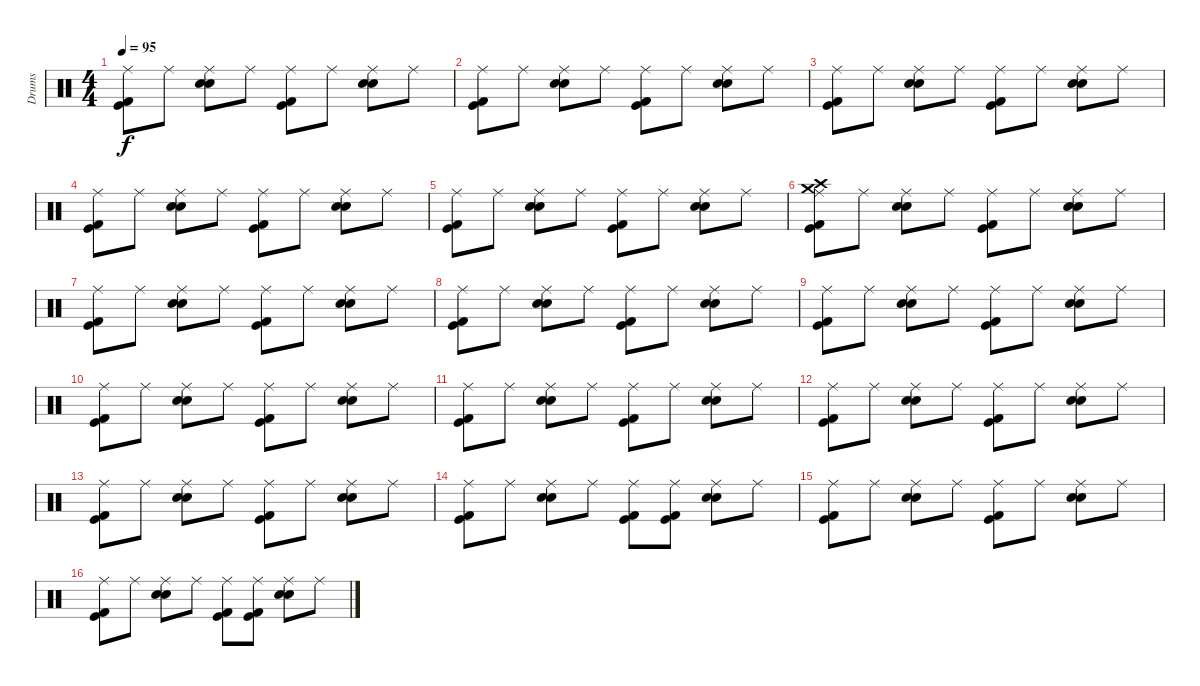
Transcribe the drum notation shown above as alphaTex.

\track ("Drums" "Drums") {instrument percussion}
\staff {score}
\articulation defaults
\ts (4 4)
\tempo 95
\clef neutral
\ks c
("Ride (middle)" "Kick (hit) 2" "Kick (hit)").8{dy f} "Ride (middle)".8 ("Ride (middle)" "Snare (hit) 2" "Electric Snare (hit)").8 "Ride (middle)".8 ("Ride (middle)" "Kick (hit) 2" "Kick (hit)").8 "Ride (middle)".8 ("Ride (middle)" "Snare (hit) 2" "Electric Snare (hit)").8 "Ride (middle)".8 |
("Ride (middle)" "Kick (hit) 2" "Kick (hit)").8 "Ride (middle)".8 ("Ride (middle)" "Snare (hit) 2" "Electric Snare (hit)").8 "Ride (middle)".8 ("Ride (middle)" "Kick (hit) 2" "Kick (hit)").8 "Ride (middle)".8 ("Ride (middle)" "Snare (hit) 2" "Electric Snare (hit)").8 "Ride (middle)".8 |
("Ride (middle)" "Kick (hit) 2" "Kick (hit)").8 "Ride (middle)".8 ("Ride (middle)" "Snare (hit) 2" "Electric Snare (hit)").8 "Ride (middle)".8 ("Ride (middle)" "Kick (hit) 2" "Kick (hit)").8 "Ride (middle)".8 ("Ride (middle)" "Snare (hit) 2" "Electric Snare (hit)").8 "Ride (middle)".8 |
("Ride (middle)" "Kick (hit) 2" "Kick (hit)").8 "Ride (middle)".8 ("Ride (middle)" "Snare (hit) 2" "Electric Snare (hit)").8 "Ride (middle)".8 ("Ride (middle)" "Kick (hit) 2" "Kick (hit)").8 "Ride (middle)".8 ("Ride (middle)" "Snare (hit) 2" "Electric Snare (hit)").8 "Ride (middle)".8 |
("Ride (middle)" "Kick (hit) 2" "Kick (hit)").8 "Ride (middle)".8 ("Ride (middle)" "Snare (hit) 2" "Electric Snare (hit)").8 "Ride (middle)".8 ("Ride (middle)" "Kick (hit) 2" "Kick (hit)").8 "Ride (middle)".8 ("Ride (middle)" "Snare (hit) 2" "Electric Snare (hit)").8 "Ride (middle)".8 |
("Ride (middle)" "Kick (hit) 2" "Kick (hit)" "Crash medium (hit)" "Crash high (hit)").8 "Ride (middle)".8 ("Ride (middle)" "Snare (hit) 2" "Electric Snare (hit)").8 "Ride (middle)".8 ("Ride (middle)" "Kick (hit) 2" "Kick (hit)").8 "Ride (middle)".8 ("Ride (middle)" "Snare (hit) 2" "Electric Snare (hit)").8 "Ride (middle)".8 |
("Ride (middle)" "Kick (hit) 2" "Kick (hit)").8 "Ride (middle)".8 ("Ride (middle)" "Snare (hit) 2" "Electric Snare (hit)").8 "Ride (middle)".8 ("Ride (middle)" "Kick (hit) 2" "Kick (hit)").8 "Ride (middle)".8 ("Ride (middle)" "Snare (hit) 2" "Electric Snare (hit)").8 "Ride (middle)".8 |
("Ride (middle)" "Kick (hit) 2" "Kick (hit)").8 "Ride (middle)".8 ("Ride (middle)" "Snare (hit) 2" "Electric Snare (hit)").8 "Ride (middle)".8 ("Ride (middle)" "Kick (hit) 2" "Kick (hit)").8 "Ride (middle)".8 ("Ride (middle)" "Snare (hit) 2" "Electric Snare (hit)").8 "Ride (middle)".8 |
("Ride (middle)" "Kick (hit) 2" "Kick (hit)").8 "Ride (middle)".8 ("Ride (middle)" "Snare (hit) 2" "Electric Snare (hit)").8 "Ride (middle)".8 ("Ride (middle)" "Kick (hit) 2" "Kick (hit)").8 "Ride (middle)".8 ("Ride (middle)" "Snare (hit) 2" "Electric Snare (hit)").8 "Ride (middle)".8 |
("Ride (middle)" "Kick (hit) 2" "Kick (hit)").8 "Ride (middle)".8 ("Ride (middle)" "Snare (hit) 2" "Electric Snare (hit)").8 "Ride (middle)".8 ("Ride (middle)" "Kick (hit) 2" "Kick (hit)").8 "Ride (middle)".8 ("Ride (middle)" "Snare (hit) 2" "Electric Snare (hit)").8 "Ride (middle)".8 |
("Ride (middle)" "Kick (hit) 2" "Kick (hit)").8 "Ride (middle)".8 ("Ride (middle)" "Snare (hit) 2" "Electric Snare (hit)").8 "Ride (middle)".8 ("Ride (middle)" "Kick (hit) 2" "Kick (hit)").8 "Ride (middle)".8 ("Ride (middle)" "Snare (hit) 2" "Electric Snare (hit)").8 "Ride (middle)".8 |
("Ride (middle)" "Kick (hit) 2" "Kick (hit)").8 "Ride (middle)".8 ("Ride (middle)" "Snare (hit) 2" "Electric Snare (hit)").8 "Ride (middle)".8 ("Ride (middle)" "Kick (hit) 2" "Kick (hit)").8 "Ride (middle)".8 ("Ride (middle)" "Snare (hit) 2" "Electric Snare (hit)").8 "Ride (middle)".8 |
("Ride (middle)" "Kick (hit) 2" "Kick (hit)").8 "Ride (middle)".8 ("Ride (middle)" "Snare (hit) 2" "Electric Snare (hit)").8 "Ride (middle)".8 ("Ride (middle)" "Kick (hit) 2" "Kick (hit)").8 "Ride (middle)".8 ("Ride (middle)" "Snare (hit) 2" "Electric Snare (hit)").8 "Ride (middle)".8 |
("Ride (middle)" "Kick (hit) 2" "Kick (hit)").8 "Ride (middle)".8 ("Ride (middle)" "Snare (hit) 2" "Electric Snare (hit)").8 "Ride (middle)".8 ("Ride (middle)" "Kick (hit) 2" "Kick (hit)").8 ("Ride (middle)" "Kick (hit) 2" "Kick (hit)").8 ("Ride (middle)" "Snare (hit) 2" "Electric Snare (hit)").8 "Ride (middle)".8 |
("Ride (middle)" "Kick (hit) 2" "Kick (hit)").8 "Ride (middle)".8 ("Ride (middle)" "Snare (hit) 2" "Electric Snare (hit)").8 "Ride (middle)".8 ("Ride (middle)" "Kick (hit) 2" "Kick (hit)").8 "Ride (middle)".8 ("Ride (middle)" "Snare (hit) 2" "Electric Snare (hit)").8 "Ride (middle)".8 |
("Ride (middle)" "Kick (hit) 2" "Kick (hit)").8 "Ride (middle)".8 ("Ride (middle)" "Snare (hit) 2" "Electric Snare (hit)").8 "Ride (middle)".8 ("Ride (middle)" "Kick (hit) 2" "Kick (hit)").8 ("Ride (middle)" "Kick (hit) 2" "Kick (hit)").8 ("Ride (middle)" "Snare (hit) 2" "Electric Snare (hit)").8 "Ride (middle)".8
